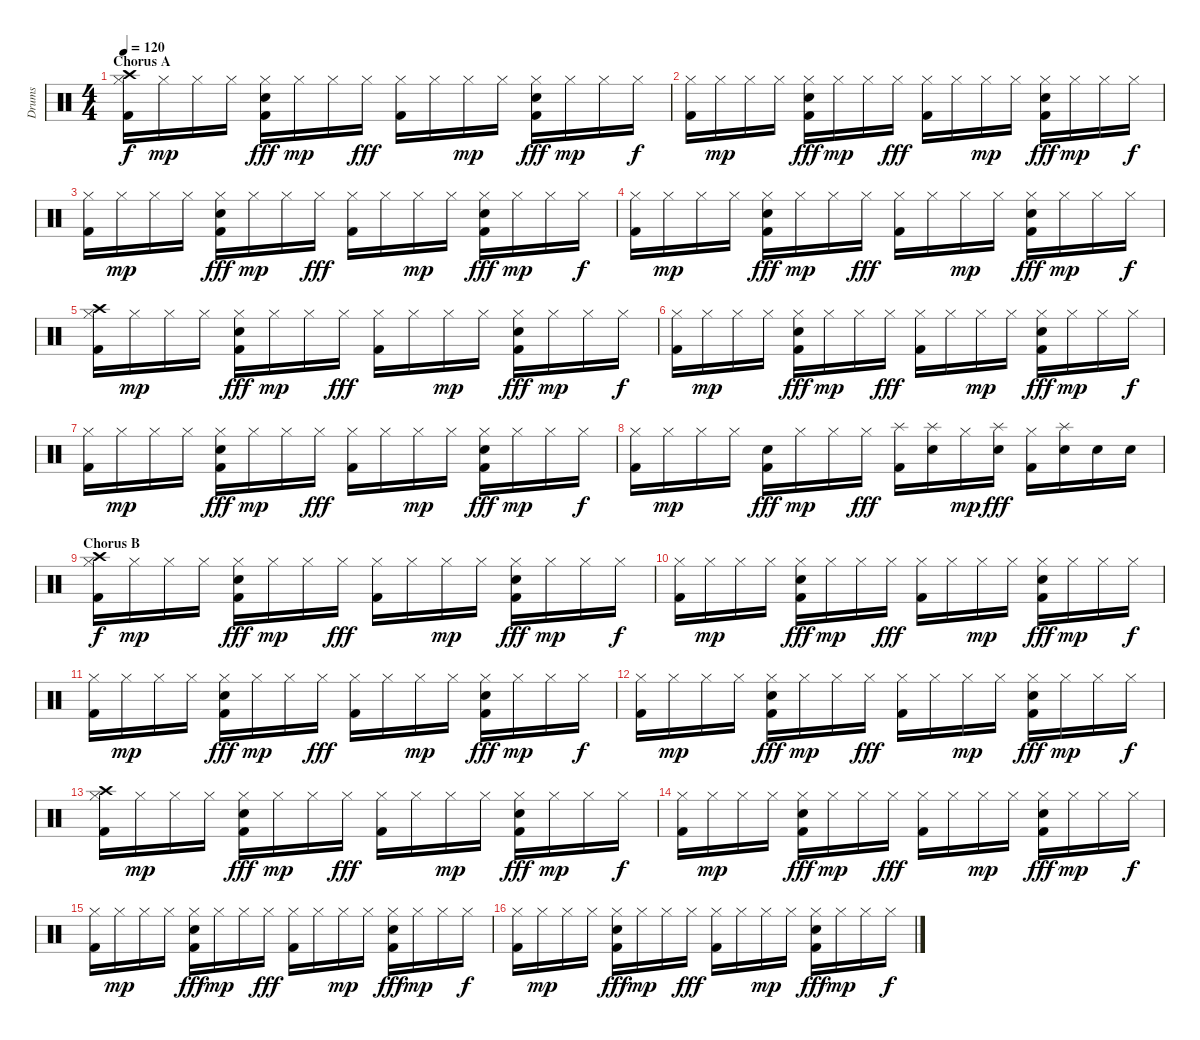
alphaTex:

\track ("Drums" "Drums") {instrument percussion}
\staff {score}
\articulation defaults
\ts (4 4)
\section ("" "Chorus A")
\tempo 120
\clef neutral
\ks c
("Hi-Hat (closed)" "Crash high (hit)" "Kick (hit) 2").16{dy f} "Hi-Hat (closed)".16{dy mp} "Hi-Hat (closed)".16 "Hi-Hat (closed)".16 ("Hi-Hat (closed)" "Snare (hit) 2" "Kick (hit) 2").16{dy fff} "Hi-Hat (closed)".16{dy mp} "Hi-Hat (closed)".16 "Hi-Hat (closed)".16{dy fff} ("Hi-Hat (closed)" "Kick (hit) 2").16 "Hi-Hat (closed)".16 "Hi-Hat (closed)".16{dy mp} "Hi-Hat (closed)".16 ("Hi-Hat (closed)" "Snare (hit) 2" "Kick (hit) 2").16{dy fff} "Hi-Hat (closed)".16{dy mp} "Hi-Hat (closed)".16 "Hi-Hat (closed)".16{dy f} |
("Hi-Hat (closed)" "Kick (hit) 2").16 "Hi-Hat (closed)".16{dy mp} "Hi-Hat (closed)".16 "Hi-Hat (closed)".16 ("Hi-Hat (closed)" "Snare (hit) 2" "Kick (hit) 2").16{dy fff} "Hi-Hat (closed)".16{dy mp} "Hi-Hat (closed)".16 "Hi-Hat (closed)".16{dy fff} ("Hi-Hat (closed)" "Kick (hit) 2").16 "Hi-Hat (closed)".16 "Hi-Hat (closed)".16{dy mp} "Hi-Hat (closed)".16 ("Hi-Hat (closed)" "Snare (hit) 2" "Kick (hit) 2").16{dy fff} "Hi-Hat (closed)".16{dy mp} "Hi-Hat (closed)".16 "Hi-Hat (closed)".16{dy f} |
("Hi-Hat (closed)" "Kick (hit) 2").16 "Hi-Hat (closed)".16{dy mp} "Hi-Hat (closed)".16 "Hi-Hat (closed)".16 ("Hi-Hat (closed)" "Snare (hit) 2" "Kick (hit) 2").16{dy fff} "Hi-Hat (closed)".16{dy mp} "Hi-Hat (closed)".16 "Hi-Hat (closed)".16{dy fff} ("Hi-Hat (closed)" "Kick (hit) 2").16 "Hi-Hat (closed)".16 "Hi-Hat (closed)".16{dy mp} "Hi-Hat (closed)".16 ("Hi-Hat (closed)" "Snare (hit) 2" "Kick (hit) 2").16{dy fff} "Hi-Hat (closed)".16{dy mp} "Hi-Hat (closed)".16 "Hi-Hat (closed)".16{dy f} |
("Hi-Hat (closed)" "Kick (hit) 2").16 "Hi-Hat (closed)".16{dy mp} "Hi-Hat (closed)".16 "Hi-Hat (closed)".16 ("Hi-Hat (closed)" "Snare (hit) 2" "Kick (hit) 2").16{dy fff} "Hi-Hat (closed)".16{dy mp} "Hi-Hat (closed)".16 "Hi-Hat (closed)".16{dy fff} ("Hi-Hat (closed)" "Kick (hit) 2").16 "Hi-Hat (closed)".16 "Hi-Hat (closed)".16{dy mp} "Hi-Hat (closed)".16 ("Hi-Hat (closed)" "Snare (hit) 2" "Kick (hit) 2").16{dy fff} "Hi-Hat (closed)".16{dy mp} "Hi-Hat (closed)".16 "Hi-Hat (closed)".16{dy f} |
("Hi-Hat (closed)" "Crash high (hit)" "Kick (hit) 2").16 "Hi-Hat (closed)".16{dy mp} "Hi-Hat (closed)".16 "Hi-Hat (closed)".16 ("Hi-Hat (closed)" "Snare (hit) 2" "Kick (hit) 2").16{dy fff} "Hi-Hat (closed)".16{dy mp} "Hi-Hat (closed)".16 "Hi-Hat (closed)".16{dy fff} ("Hi-Hat (closed)" "Kick (hit) 2").16 "Hi-Hat (closed)".16 "Hi-Hat (closed)".16{dy mp} "Hi-Hat (closed)".16 ("Hi-Hat (closed)" "Snare (hit) 2" "Kick (hit) 2").16{dy fff} "Hi-Hat (closed)".16{dy mp} "Hi-Hat (closed)".16 "Hi-Hat (closed)".16{dy f} |
("Hi-Hat (closed)" "Kick (hit) 2").16 "Hi-Hat (closed)".16{dy mp} "Hi-Hat (closed)".16 "Hi-Hat (closed)".16 ("Hi-Hat (closed)" "Snare (hit) 2" "Kick (hit) 2").16{dy fff} "Hi-Hat (closed)".16{dy mp} "Hi-Hat (closed)".16 "Hi-Hat (closed)".16{dy fff} ("Hi-Hat (closed)" "Kick (hit) 2").16 "Hi-Hat (closed)".16 "Hi-Hat (closed)".16{dy mp} "Hi-Hat (closed)".16 ("Hi-Hat (closed)" "Snare (hit) 2" "Kick (hit) 2").16{dy fff} "Hi-Hat (closed)".16{dy mp} "Hi-Hat (closed)".16 "Hi-Hat (closed)".16{dy f} |
("Hi-Hat (closed)" "Kick (hit) 2").16 "Hi-Hat (closed)".16{dy mp} "Hi-Hat (closed)".16 "Hi-Hat (closed)".16 ("Hi-Hat (closed)" "Snare (hit) 2" "Kick (hit) 2").16{dy fff} "Hi-Hat (closed)".16{dy mp} "Hi-Hat (closed)".16 "Hi-Hat (closed)".16{dy fff} ("Hi-Hat (closed)" "Kick (hit) 2").16 "Hi-Hat (closed)".16 "Hi-Hat (closed)".16{dy mp} "Hi-Hat (closed)".16 ("Hi-Hat (closed)" "Snare (hit) 2" "Kick (hit) 2").16{dy fff} "Hi-Hat (closed)".16{dy mp} "Hi-Hat (closed)".16 "Hi-Hat (closed)".16{dy f} |
("Hi-Hat (closed)" "Kick (hit) 2").16 "Hi-Hat (closed)".16{dy mp} "Hi-Hat (closed)".16 "Hi-Hat (closed)".16 ("Snare (hit) 2" "Kick (hit) 2").16{dy fff} "Hi-Hat (closed)".16{dy mp} "Hi-Hat (closed)".16 "Hi-Hat (closed)".16{dy fff} ("Splash (hit)" "Kick (hit) 2").16 ("Splash (hit)" "Snare (hit) 2").16 "Hi-Hat (closed)".16{dy mp} ("Splash (hit)" "Snare (hit) 2").16{dy fff} ("Hi-Hat (closed)" "Kick (hit) 2").16 ("Splash (hit)" "Snare (hit) 2").16 "Snare (hit) 2".16 "Snare (hit) 2".16 |
\section ("" "Chorus B")
("Hi-Hat (closed)" "Crash high (hit)" "Kick (hit) 2").16{dy f} "Hi-Hat (closed)".16{dy mp} "Hi-Hat (closed)".16 "Hi-Hat (closed)".16 ("Hi-Hat (closed)" "Snare (hit) 2" "Kick (hit) 2").16{dy fff} "Hi-Hat (closed)".16{dy mp} "Hi-Hat (closed)".16 "Hi-Hat (closed)".16{dy fff} ("Hi-Hat (closed)" "Kick (hit) 2").16 "Hi-Hat (closed)".16 "Hi-Hat (closed)".16{dy mp} "Hi-Hat (closed)".16 ("Hi-Hat (closed)" "Snare (hit) 2" "Kick (hit) 2").16{dy fff} "Hi-Hat (closed)".16{dy mp} "Hi-Hat (closed)".16 "Hi-Hat (closed)".16{dy f} |
("Hi-Hat (closed)" "Kick (hit) 2").16 "Hi-Hat (closed)".16{dy mp} "Hi-Hat (closed)".16 "Hi-Hat (closed)".16 ("Hi-Hat (closed)" "Snare (hit) 2" "Kick (hit) 2").16{dy fff} "Hi-Hat (closed)".16{dy mp} "Hi-Hat (closed)".16 "Hi-Hat (closed)".16{dy fff} ("Hi-Hat (closed)" "Kick (hit) 2").16 "Hi-Hat (closed)".16 "Hi-Hat (closed)".16{dy mp} "Hi-Hat (closed)".16 ("Hi-Hat (closed)" "Snare (hit) 2" "Kick (hit) 2").16{dy fff} "Hi-Hat (closed)".16{dy mp} "Hi-Hat (closed)".16 "Hi-Hat (closed)".16{dy f} |
("Hi-Hat (closed)" "Kick (hit) 2").16 "Hi-Hat (closed)".16{dy mp} "Hi-Hat (closed)".16 "Hi-Hat (closed)".16 ("Hi-Hat (closed)" "Snare (hit) 2" "Kick (hit) 2").16{dy fff} "Hi-Hat (closed)".16{dy mp} "Hi-Hat (closed)".16 "Hi-Hat (closed)".16{dy fff} ("Hi-Hat (closed)" "Kick (hit) 2").16 "Hi-Hat (closed)".16 "Hi-Hat (closed)".16{dy mp} "Hi-Hat (closed)".16 ("Hi-Hat (closed)" "Snare (hit) 2" "Kick (hit) 2").16{dy fff} "Hi-Hat (closed)".16{dy mp} "Hi-Hat (closed)".16 "Hi-Hat (closed)".16{dy f} |
("Hi-Hat (closed)" "Kick (hit) 2").16 "Hi-Hat (closed)".16{dy mp} "Hi-Hat (closed)".16 "Hi-Hat (closed)".16 ("Hi-Hat (closed)" "Snare (hit) 2" "Kick (hit) 2").16{dy fff} "Hi-Hat (closed)".16{dy mp} "Hi-Hat (closed)".16 "Hi-Hat (closed)".16{dy fff} ("Hi-Hat (closed)" "Kick (hit) 2").16 "Hi-Hat (closed)".16 "Hi-Hat (closed)".16{dy mp} "Hi-Hat (closed)".16 ("Hi-Hat (closed)" "Snare (hit) 2" "Kick (hit) 2").16{dy fff} "Hi-Hat (closed)".16{dy mp} "Hi-Hat (closed)".16 "Hi-Hat (closed)".16{dy f} |
("Hi-Hat (closed)" "Crash high (hit)" "Kick (hit) 2").16 "Hi-Hat (closed)".16{dy mp} "Hi-Hat (closed)".16 "Hi-Hat (closed)".16 ("Hi-Hat (closed)" "Snare (hit) 2" "Kick (hit) 2").16{dy fff} "Hi-Hat (closed)".16{dy mp} "Hi-Hat (closed)".16 "Hi-Hat (closed)".16{dy fff} ("Hi-Hat (closed)" "Kick (hit) 2").16 "Hi-Hat (closed)".16 "Hi-Hat (closed)".16{dy mp} "Hi-Hat (closed)".16 ("Hi-Hat (closed)" "Snare (hit) 2" "Kick (hit) 2").16{dy fff} "Hi-Hat (closed)".16{dy mp} "Hi-Hat (closed)".16 "Hi-Hat (closed)".16{dy f} |
("Hi-Hat (closed)" "Kick (hit) 2").16 "Hi-Hat (closed)".16{dy mp} "Hi-Hat (closed)".16 "Hi-Hat (closed)".16 ("Hi-Hat (closed)" "Snare (hit) 2" "Kick (hit) 2").16{dy fff} "Hi-Hat (closed)".16{dy mp} "Hi-Hat (closed)".16 "Hi-Hat (closed)".16{dy fff} ("Hi-Hat (closed)" "Kick (hit) 2").16 "Hi-Hat (closed)".16 "Hi-Hat (closed)".16{dy mp} "Hi-Hat (closed)".16 ("Hi-Hat (closed)" "Snare (hit) 2" "Kick (hit) 2").16{dy fff} "Hi-Hat (closed)".16{dy mp} "Hi-Hat (closed)".16 "Hi-Hat (closed)".16{dy f} |
("Hi-Hat (closed)" "Kick (hit) 2").16 "Hi-Hat (closed)".16{dy mp} "Hi-Hat (closed)".16 "Hi-Hat (closed)".16 ("Hi-Hat (closed)" "Snare (hit) 2" "Kick (hit) 2").16{dy fff} "Hi-Hat (closed)".16{dy mp} "Hi-Hat (closed)".16 "Hi-Hat (closed)".16{dy fff} ("Hi-Hat (closed)" "Kick (hit) 2").16 "Hi-Hat (closed)".16 "Hi-Hat (closed)".16{dy mp} "Hi-Hat (closed)".16 ("Hi-Hat (closed)" "Snare (hit) 2" "Kick (hit) 2").16{dy fff} "Hi-Hat (closed)".16{dy mp} "Hi-Hat (closed)".16 "Hi-Hat (closed)".16{dy f} |
("Hi-Hat (closed)" "Kick (hit) 2").16 "Hi-Hat (closed)".16{dy mp} "Hi-Hat (closed)".16 "Hi-Hat (closed)".16 ("Hi-Hat (closed)" "Snare (hit) 2" "Kick (hit) 2").16{dy fff} "Hi-Hat (closed)".16{dy mp} "Hi-Hat (closed)".16 "Hi-Hat (closed)".16{dy fff} ("Hi-Hat (closed)" "Kick (hit) 2").16 "Hi-Hat (closed)".16 "Hi-Hat (closed)".16{dy mp} "Hi-Hat (closed)".16 ("Hi-Hat (closed)" "Snare (hit) 2" "Kick (hit) 2").16{dy fff} "Hi-Hat (closed)".16{dy mp} "Hi-Hat (closed)".16 "Hi-Hat (closed)".16{dy f}
